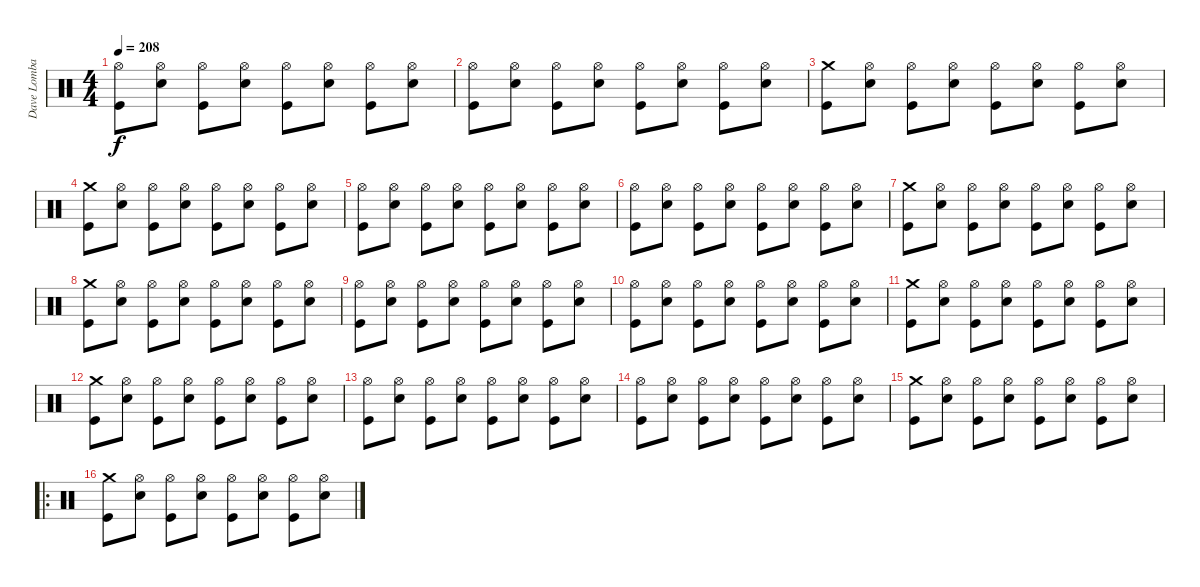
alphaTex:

\track ("Dave Lombardo (Drum)" "Dave Lomba") {instrument percussion}
\staff {score}
\articulation defaults
\ts (4 4)
\tempo 208
\clef neutral
\ks c
("Hi-Hat (open)" "Kick (hit)").8{dy f} ("Snare (hit) 2" "Hi-Hat (open)").8 ("Kick (hit)" "Hi-Hat (open)").8 ("Snare (hit) 2" "Hi-Hat (open)").8 ("Kick (hit)" "Hi-Hat (open)").8 ("Snare (hit) 2" "Hi-Hat (open)").8 ("Kick (hit)" "Hi-Hat (open)").8 ("Snare (hit) 2" "Hi-Hat (open)").8 |
("Hi-Hat (open)" "Kick (hit)").8 ("Snare (hit) 2" "Hi-Hat (open)").8 ("Kick (hit)" "Hi-Hat (open)").8 ("Snare (hit) 2" "Hi-Hat (open)").8 ("Kick (hit)" "Hi-Hat (open)").8 ("Snare (hit) 2" "Hi-Hat (open)").8 ("Kick (hit)" "Hi-Hat (open)").8 ("Snare (hit) 2" "Hi-Hat (open)").8 |
("Crash medium (hit)" "Kick (hit)").8 ("Snare (hit) 2" "Hi-Hat (open)").8 ("Kick (hit)" "Hi-Hat (open)").8 ("Snare (hit) 2" "Hi-Hat (open)").8 ("Kick (hit)" "Hi-Hat (open)").8 ("Snare (hit) 2" "Hi-Hat (open)").8 ("Kick (hit)" "Hi-Hat (open)").8 ("Snare (hit) 2" "Hi-Hat (open)").8 |
("Crash medium (hit)" "Kick (hit)").8 ("Snare (hit) 2" "Hi-Hat (open)").8 ("Kick (hit)" "Hi-Hat (open)").8 ("Snare (hit) 2" "Hi-Hat (open)").8 ("Kick (hit)" "Hi-Hat (open)").8 ("Snare (hit) 2" "Hi-Hat (open)").8 ("Kick (hit)" "Hi-Hat (open)").8 ("Snare (hit) 2" "Hi-Hat (open)").8 |
("Hi-Hat (open)" "Kick (hit)").8 ("Snare (hit) 2" "Hi-Hat (open)").8 ("Kick (hit)" "Hi-Hat (open)").8 ("Snare (hit) 2" "Hi-Hat (open)").8 ("Kick (hit)" "Hi-Hat (open)").8 ("Snare (hit) 2" "Hi-Hat (open)").8 ("Kick (hit)" "Hi-Hat (open)").8 ("Snare (hit) 2" "Hi-Hat (open)").8 |
("Hi-Hat (open)" "Kick (hit)").8 ("Snare (hit) 2" "Hi-Hat (open)").8 ("Kick (hit)" "Hi-Hat (open)").8 ("Snare (hit) 2" "Hi-Hat (open)").8 ("Kick (hit)" "Hi-Hat (open)").8 ("Snare (hit) 2" "Hi-Hat (open)").8 ("Kick (hit)" "Hi-Hat (open)").8 ("Snare (hit) 2" "Hi-Hat (open)").8 |
("Crash medium (hit)" "Kick (hit)").8 ("Snare (hit) 2" "Hi-Hat (open)").8 ("Kick (hit)" "Hi-Hat (open)").8 ("Snare (hit) 2" "Hi-Hat (open)").8 ("Kick (hit)" "Hi-Hat (open)").8 ("Snare (hit) 2" "Hi-Hat (open)").8 ("Kick (hit)" "Hi-Hat (open)").8 ("Snare (hit) 2" "Hi-Hat (open)").8 |
("Crash medium (hit)" "Kick (hit)").8 ("Snare (hit) 2" "Hi-Hat (open)").8 ("Kick (hit)" "Hi-Hat (open)").8 ("Snare (hit) 2" "Hi-Hat (open)").8 ("Kick (hit)" "Hi-Hat (open)").8 ("Snare (hit) 2" "Hi-Hat (open)").8 ("Kick (hit)" "Hi-Hat (open)").8 ("Snare (hit) 2" "Hi-Hat (open)").8 |
("Hi-Hat (open)" "Kick (hit)").8 ("Snare (hit) 2" "Hi-Hat (open)").8 ("Kick (hit)" "Hi-Hat (open)").8 ("Snare (hit) 2" "Hi-Hat (open)").8 ("Kick (hit)" "Hi-Hat (open)").8 ("Snare (hit) 2" "Hi-Hat (open)").8 ("Kick (hit)" "Hi-Hat (open)").8 ("Snare (hit) 2" "Hi-Hat (open)").8 |
("Hi-Hat (open)" "Kick (hit)").8 ("Snare (hit) 2" "Hi-Hat (open)").8 ("Kick (hit)" "Hi-Hat (open)").8 ("Snare (hit) 2" "Hi-Hat (open)").8 ("Kick (hit)" "Hi-Hat (open)").8 ("Snare (hit) 2" "Hi-Hat (open)").8 ("Kick (hit)" "Hi-Hat (open)").8 ("Snare (hit) 2" "Hi-Hat (open)").8 |
("Crash medium (hit)" "Kick (hit)").8 ("Snare (hit) 2" "Hi-Hat (open)").8 ("Kick (hit)" "Hi-Hat (open)").8 ("Snare (hit) 2" "Hi-Hat (open)").8 ("Kick (hit)" "Hi-Hat (open)").8 ("Snare (hit) 2" "Hi-Hat (open)").8 ("Kick (hit)" "Hi-Hat (open)").8 ("Snare (hit) 2" "Hi-Hat (open)").8 |
("Crash medium (hit)" "Kick (hit)").8 ("Snare (hit) 2" "Hi-Hat (open)").8 ("Kick (hit)" "Hi-Hat (open)").8 ("Snare (hit) 2" "Hi-Hat (open)").8 ("Kick (hit)" "Hi-Hat (open)").8 ("Snare (hit) 2" "Hi-Hat (open)").8 ("Kick (hit)" "Hi-Hat (open)").8 ("Snare (hit) 2" "Hi-Hat (open)").8 |
("Hi-Hat (open)" "Kick (hit)").8 ("Snare (hit) 2" "Hi-Hat (open)").8 ("Kick (hit)" "Hi-Hat (open)").8 ("Snare (hit) 2" "Hi-Hat (open)").8 ("Kick (hit)" "Hi-Hat (open)").8 ("Snare (hit) 2" "Hi-Hat (open)").8 ("Kick (hit)" "Hi-Hat (open)").8 ("Snare (hit) 2" "Hi-Hat (open)").8 |
("Hi-Hat (open)" "Kick (hit)").8 ("Snare (hit) 2" "Hi-Hat (open)").8 ("Kick (hit)" "Hi-Hat (open)").8 ("Snare (hit) 2" "Hi-Hat (open)").8 ("Kick (hit)" "Hi-Hat (open)").8 ("Snare (hit) 2" "Hi-Hat (open)").8 ("Kick (hit)" "Hi-Hat (open)").8 ("Snare (hit) 2" "Hi-Hat (open)").8 |
("Crash medium (hit)" "Kick (hit)").8 ("Snare (hit) 2" "Hi-Hat (open)").8 ("Kick (hit)" "Hi-Hat (open)").8 ("Snare (hit) 2" "Hi-Hat (open)").8 ("Kick (hit)" "Hi-Hat (open)").8 ("Snare (hit) 2" "Hi-Hat (open)").8 ("Kick (hit)" "Hi-Hat (open)").8 ("Snare (hit) 2" "Hi-Hat (open)").8 |
\ro
("Crash medium (hit)" "Kick (hit)").8 ("Snare (hit) 2" "Hi-Hat (open)").8 ("Kick (hit)" "Hi-Hat (open)").8 ("Snare (hit) 2" "Hi-Hat (open)").8 ("Kick (hit)" "Hi-Hat (open)").8 ("Snare (hit) 2" "Hi-Hat (open)").8 ("Kick (hit)" "Hi-Hat (open)").8 ("Snare (hit) 2" "Hi-Hat (open)").8
